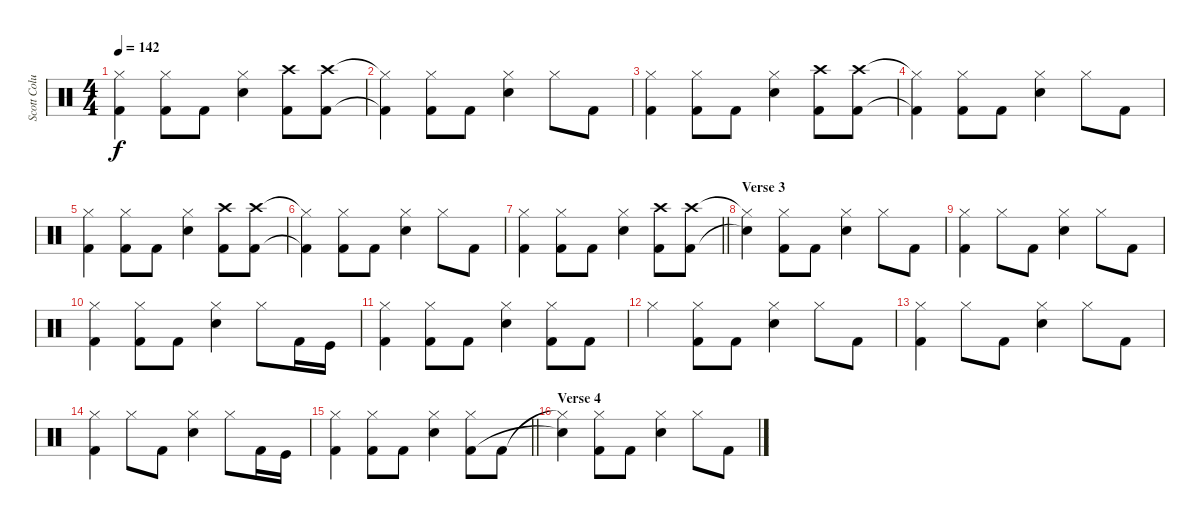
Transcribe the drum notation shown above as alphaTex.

\track ("Scott Columbus" "Scott Colu") {instrument percussion}
\staff {score}
\articulation defaults
\ts (4 4)
\tempo 142
\clef neutral
\ks c
("Hi-Hat (closed)" "Kick (hit) 2").4{dy f} ("Hi-Hat (closed)" "Kick (hit) 2").8 "Kick (hit) 2".8 ("Hi-Hat (closed)" "Snare (hit) 2").4 ("Crash high (hit)" "Kick (hit) 2").8 ("Crash high (hit)" "Kick (hit) 2").8 |
("Hi-Hat (closed)"{t} "Kick (hit) 2"{t}).4 ("Hi-Hat (closed)" "Kick (hit) 2").8 "Kick (hit) 2".8 ("Hi-Hat (closed)" "Snare (hit) 2").4 "Hi-Hat (closed)".8 "Kick (hit) 2".8 |
("Hi-Hat (closed)" "Kick (hit) 2").4 ("Hi-Hat (closed)" "Kick (hit) 2").8 "Kick (hit) 2".8 ("Hi-Hat (closed)" "Snare (hit) 2").4 ("Crash high (hit)" "Kick (hit) 2").8 ("Crash high (hit)" "Kick (hit) 2").8 |
("Hi-Hat (closed)"{t} "Kick (hit) 2"{t}).4 ("Hi-Hat (closed)" "Kick (hit) 2").8 "Kick (hit) 2".8 ("Hi-Hat (closed)" "Snare (hit) 2").4 "Hi-Hat (closed)".8 "Kick (hit) 2".8 |
("Hi-Hat (closed)" "Kick (hit) 2").4 ("Hi-Hat (closed)" "Kick (hit) 2").8 "Kick (hit) 2".8 ("Hi-Hat (closed)" "Snare (hit) 2").4 ("Crash high (hit)" "Kick (hit) 2").8 ("Crash high (hit)" "Kick (hit) 2").8 |
("Hi-Hat (closed)"{t} "Kick (hit) 2"{t}).4 ("Hi-Hat (closed)" "Kick (hit) 2").8 "Kick (hit) 2".8 ("Hi-Hat (closed)" "Snare (hit) 2").4 "Hi-Hat (closed)".8 "Kick (hit) 2".8 |
\barLineRight lightlight
("Hi-Hat (closed)" "Kick (hit) 2").4 ("Hi-Hat (closed)" "Kick (hit) 2").8 "Kick (hit) 2".8 ("Hi-Hat (closed)" "Snare (hit) 2").4 ("Crash high (hit)" "Kick (hit) 2").8 ("Crash high (hit)" "Kick (hit) 2").8 |
\section ("" "Verse 3")
("Hi-Hat (closed)"{t} "Snare (hit)"{t}).4 ("Hi-Hat (closed)" "Kick (hit) 2").8 "Kick (hit) 2".8 ("Hi-Hat (closed)" "Snare (hit) 2").4 "Hi-Hat (closed)".8 "Kick (hit) 2".8 |
("Hi-Hat (closed)" "Kick (hit) 2").4 "Hi-Hat (closed)".8 "Kick (hit) 2".8 ("Hi-Hat (closed)" "Snare (hit) 2").4 "Hi-Hat (closed)".8 "Kick (hit) 2".8 |
("Hi-Hat (closed)" "Kick (hit) 2").4 ("Hi-Hat (closed)" "Kick (hit) 2").8 "Kick (hit) 2".8 ("Hi-Hat (closed)" "Snare (hit) 2").4 "Hi-Hat (closed)".8 "Kick (hit) 2".16 "Kick (hit)".16 |
("Hi-Hat (closed)" "Kick (hit) 2").4 ("Hi-Hat (closed)" "Kick (hit) 2").8 "Kick (hit) 2".8 ("Hi-Hat (closed)" "Snare (hit) 2").4 ("Hi-Hat (closed)" "Kick (hit) 2").8 "Kick (hit) 2".8 |
"Hi-Hat (closed)".4 ("Hi-Hat (closed)" "Kick (hit) 2").8 "Kick (hit) 2".8 ("Hi-Hat (closed)" "Snare (hit) 2").4 "Hi-Hat (closed)".8 "Kick (hit) 2".8 |
("Hi-Hat (closed)" "Kick (hit) 2").4 "Hi-Hat (closed)".8 "Kick (hit) 2".8 ("Hi-Hat (closed)" "Snare (hit) 2").4 "Hi-Hat (closed)".8 "Kick (hit) 2".8 |
("Hi-Hat (closed)" "Kick (hit) 2").4 "Hi-Hat (closed)".8 "Kick (hit) 2".8 ("Hi-Hat (closed)" "Snare (hit) 2").4 "Hi-Hat (closed)".8 "Kick (hit) 2".16 "Kick (hit)".16 |
\barLineRight lightlight
("Hi-Hat (closed)" "Kick (hit) 2").4 ("Hi-Hat (closed)" "Kick (hit) 2").8 "Kick (hit) 2".8 ("Hi-Hat (closed)" "Snare (hit) 2").4 ("Hi-Hat (closed)" "Kick (hit) 2").8 "Kick (hit) 2".8 |
\section ("" "Verse 4")
("Hi-Hat (closed)"{t} "Snare (hit)"{t}).4 ("Hi-Hat (closed)" "Kick (hit) 2").8 "Kick (hit) 2".8 ("Hi-Hat (closed)" "Snare (hit) 2").4 "Hi-Hat (closed)".8 "Kick (hit) 2".8
